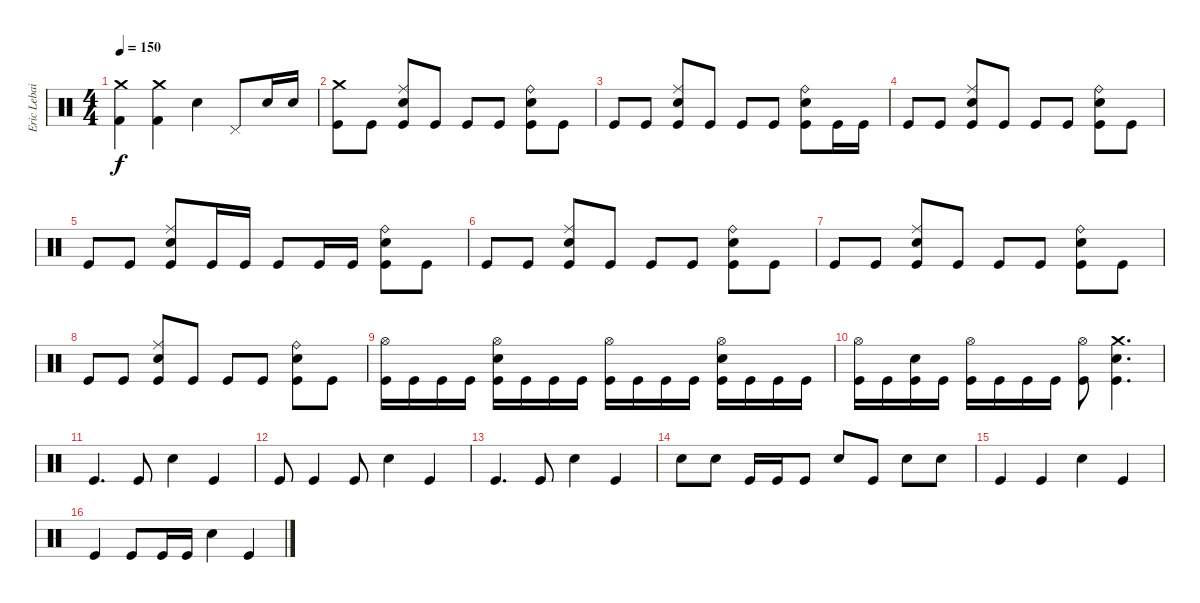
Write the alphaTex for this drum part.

\track ("Eric Lebailly - Drums" "Eric Lebai") {instrument percussion}
\staff {score}
\articulation defaults
\ts (4 4)
\tempo 150
\clef neutral
\ks c
("Crash medium (hit)" "Kick (hit) 2").4{dy f} ("Crash medium (hit)" "Kick (hit) 2").4 "Electric Snare (hit)".4 "Pedal Hi-Hat (hit)".8 "Electric Snare (hit)".16 "Electric Snare (hit)".16 |
("Crash medium (hit)" "Kick (hit)").8 "Kick (hit)".8 ("Ride (middle)" "Snare (hit) 2" "Kick (hit)").8 "Kick (hit)".8 "Kick (hit)".8 "Kick (hit)".8 ("Ride (bell)" "Snare (hit) 2" "Kick (hit)").8 "Kick (hit)".8 |
"Kick (hit)".8 "Kick (hit)".8 ("Ride (middle)" "Snare (hit) 2" "Kick (hit)").8 "Kick (hit)".8 "Kick (hit)".8 "Kick (hit)".8 ("Ride (bell)" "Snare (hit) 2" "Kick (hit)").8 "Kick (hit)".16 "Kick (hit)".16 |
"Kick (hit)".8 "Kick (hit)".8 ("Ride (middle)" "Snare (hit) 2" "Kick (hit)").8 "Kick (hit)".8 "Kick (hit)".8 "Kick (hit)".8 ("Ride (bell)" "Snare (hit) 2" "Kick (hit)").8 "Kick (hit)".8 |
"Kick (hit)".8 "Kick (hit)".8 ("Ride (middle)" "Snare (hit) 2" "Kick (hit)").8 "Kick (hit)".16 "Kick (hit)".16 "Kick (hit)".8 "Kick (hit)".16 "Kick (hit)".16 ("Ride (bell)" "Snare (hit) 2" "Kick (hit)").8 "Kick (hit)".8 |
"Kick (hit)".8 "Kick (hit)".8 ("Ride (middle)" "Snare (hit) 2" "Kick (hit)").8 "Kick (hit)".8 "Kick (hit)".8 "Kick (hit)".8 ("Ride (bell)" "Snare (hit) 2" "Kick (hit)").8 "Kick (hit)".8 |
"Kick (hit)".8 "Kick (hit)".8 ("Ride (middle)" "Snare (hit) 2" "Kick (hit)").8 "Kick (hit)".8 "Kick (hit)".8 "Kick (hit)".8 ("Ride (bell)" "Snare (hit) 2" "Kick (hit)").8 "Kick (hit)".8 |
"Kick (hit)".8 "Kick (hit)".8 ("Ride (middle)" "Snare (hit) 2" "Kick (hit)").8 "Kick (hit)".8 "Kick (hit)".8 "Kick (hit)".8 ("Ride (bell)" "Snare (hit) 2" "Kick (hit)").8 "Kick (hit)".8 |
("Hi-Hat (open)" "Kick (hit)").16 "Kick (hit)".16 "Kick (hit)".16 "Kick (hit)".16 ("Hi-Hat (open)" "Snare (hit) 2" "Kick (hit)").16 "Kick (hit)".16 "Kick (hit)".16 "Kick (hit)".16 ("Hi-Hat (open)" "Kick (hit)").16 "Kick (hit)".16 "Kick (hit)".16 "Kick (hit)".16 ("Hi-Hat (open)" "Snare (hit) 2" "Kick (hit)").16 "Kick (hit)".16 "Kick (hit)".16 "Kick (hit)".16 |
("Hi-Hat (open)" "Kick (hit)").16 "Kick (hit)".16 ("Snare (hit) 2" "Kick (hit)").16 "Kick (hit)".16 ("Hi-Hat (open)" "Kick (hit)").16 "Kick (hit)".16 "Kick (hit)".16 "Kick (hit)".16 ("Hi-Hat (open)" "Kick (hit)").8 ("Crash medium (hit)" "Snare (hit) 2" "Kick (hit)").4{d} |
"Kick (hit)".4{d} "Kick (hit)".8 "Snare (hit) 2".4 "Kick (hit)".4 |
"Kick (hit)".8 "Kick (hit)".4 "Kick (hit)".8 "Snare (hit) 2".4 "Kick (hit)".4 |
"Kick (hit)".4{d} "Kick (hit)".8 "Snare (hit) 2".4 "Kick (hit)".4 |
"Snare (hit) 2".8 "Snare (hit) 2".8 "Kick (hit)".16 "Kick (hit)".16 "Kick (hit)".8 "Snare (hit) 2".8 "Kick (hit)".8 "Snare (hit) 2".8 "Snare (hit) 2".8 |
"Kick (hit)".4 "Kick (hit)".4 "Snare (hit) 2".4 "Kick (hit)".4 |
"Kick (hit)".4 "Kick (hit)".8 "Kick (hit)".16 "Kick (hit)".16 "Snare (hit) 2".4 "Kick (hit)".4
